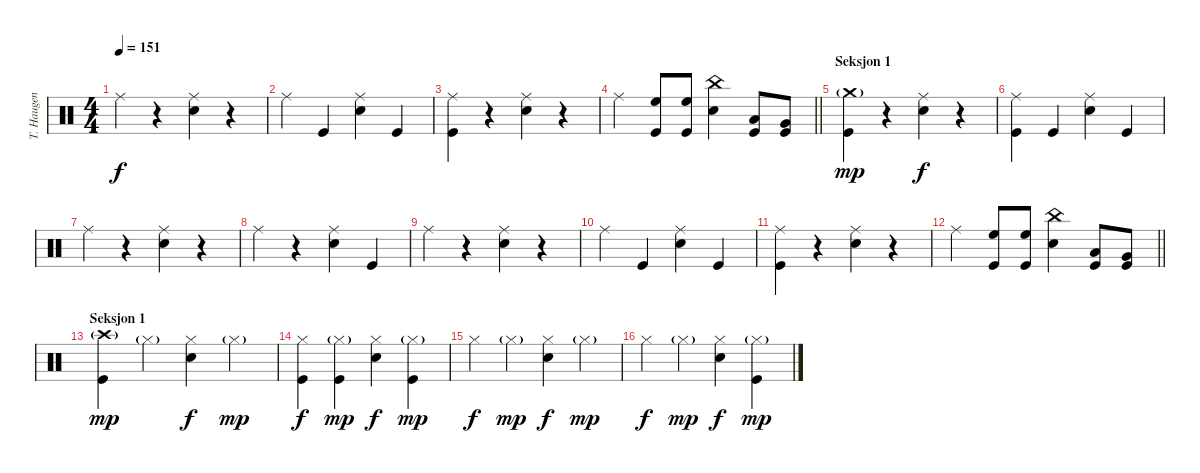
\track ("T. Haugen" "T. Haugen") {instrument percussion}
\staff {score}
\articulation defaults
\ts (4 4)
\tempo 151
\clef neutral
\ks c "Ride (middle)".4{dy f}
r.4 ("Ride (middle)" "Electric Snare (hit)").4 r.4 |
"Ride (middle)".4 "Kick (hit)".4 ("Ride (middle)" "Electric Snare (hit)").4 "Kick (hit)".4 |
("Ride (middle)" "Kick (hit)").4 r.4 ("Ride (middle)" "Electric Snare (hit)").4 r.4 |
\barLineRight lightlight "Ride (middle)".4
("High Floor Tom (hit)" "Kick (hit)").8 ("High Floor Tom (hit)" "Kick (hit)").8 ("China (hit)" "Electric Snare (hit)").4 ("Low Tom (hit)" "Kick (hit)").8 ("Very Low Tom (hit)" "Kick (hit)").8 |
\section ("" "Seksjon 1")
("Crash medium (hit)"{g} "Kick (hit)").4{dy mp} r.4 ("Ride (middle)" "Electric Snare (hit)").4{dy f} r.4 |
("Ride (middle)" "Kick (hit)").4 "Kick (hit)".4 ("Ride (middle)" "Electric Snare (hit)").4 "Kick (hit)".4 |
"Ride (middle)".4 r.4 ("Ride (middle)" "Electric Snare (hit)").4 r.4 |
"Ride (middle)".4 r.4 ("Ride (middle)" "Electric Snare (hit)").4 "Kick (hit)".4 |
"Ride (middle)".4 r.4 ("Ride (middle)" "Electric Snare (hit)").4 r.4 |
"Ride (middle)".4 "Kick (hit)".4 ("Ride (middle)" "Electric Snare (hit)").4 "Kick (hit)".4 |
("Ride (middle)" "Kick (hit)").4 r.4 ("Ride (middle)" "Electric Snare (hit)").4 r.4 |
\barLineRight lightlight "Ride (middle)".4
("High Floor Tom (hit)" "Kick (hit)").8 ("High Floor Tom (hit)" "Kick (hit)").8 ("China (hit)" "Electric Snare (hit)").4 ("Low Tom (hit)" "Kick (hit)").8 ("Very Low Tom (hit)" "Kick (hit)").8 |
\section ("" "Seksjon 1")
("Crash high (hit)"{g} "Kick (hit)").4{dy mp} "Hi-Hat (closed)"{g}.4 ("Hi-Hat (closed)" "Electric Snare (hit)").4{dy f} "Hi-Hat (closed)"{g}.4{dy mp} |
("Hi-Hat (closed)" "Kick (hit)").4{dy f} ("Hi-Hat (closed)"{g} "Kick (hit)").4{dy mp} ("Hi-Hat (closed)" "Electric Snare (hit)").4{dy f} ("Hi-Hat (closed)"{g} "Kick (hit)").4{dy mp} |
"Hi-Hat (closed)".4{dy f} "Hi-Hat (closed)"{g}.4{dy mp} ("Hi-Hat (closed)" "Electric Snare (hit)").4{dy f} "Hi-Hat (closed)"{g}.4{dy mp} |
"Hi-Hat (closed)".4{dy f} "Hi-Hat (closed)"{g}.4{dy mp} ("Hi-Hat (closed)" "Electric Snare (hit)").4{dy f} ("Hi-Hat (closed)"{g} "Kick (hit)").4{dy mp}
